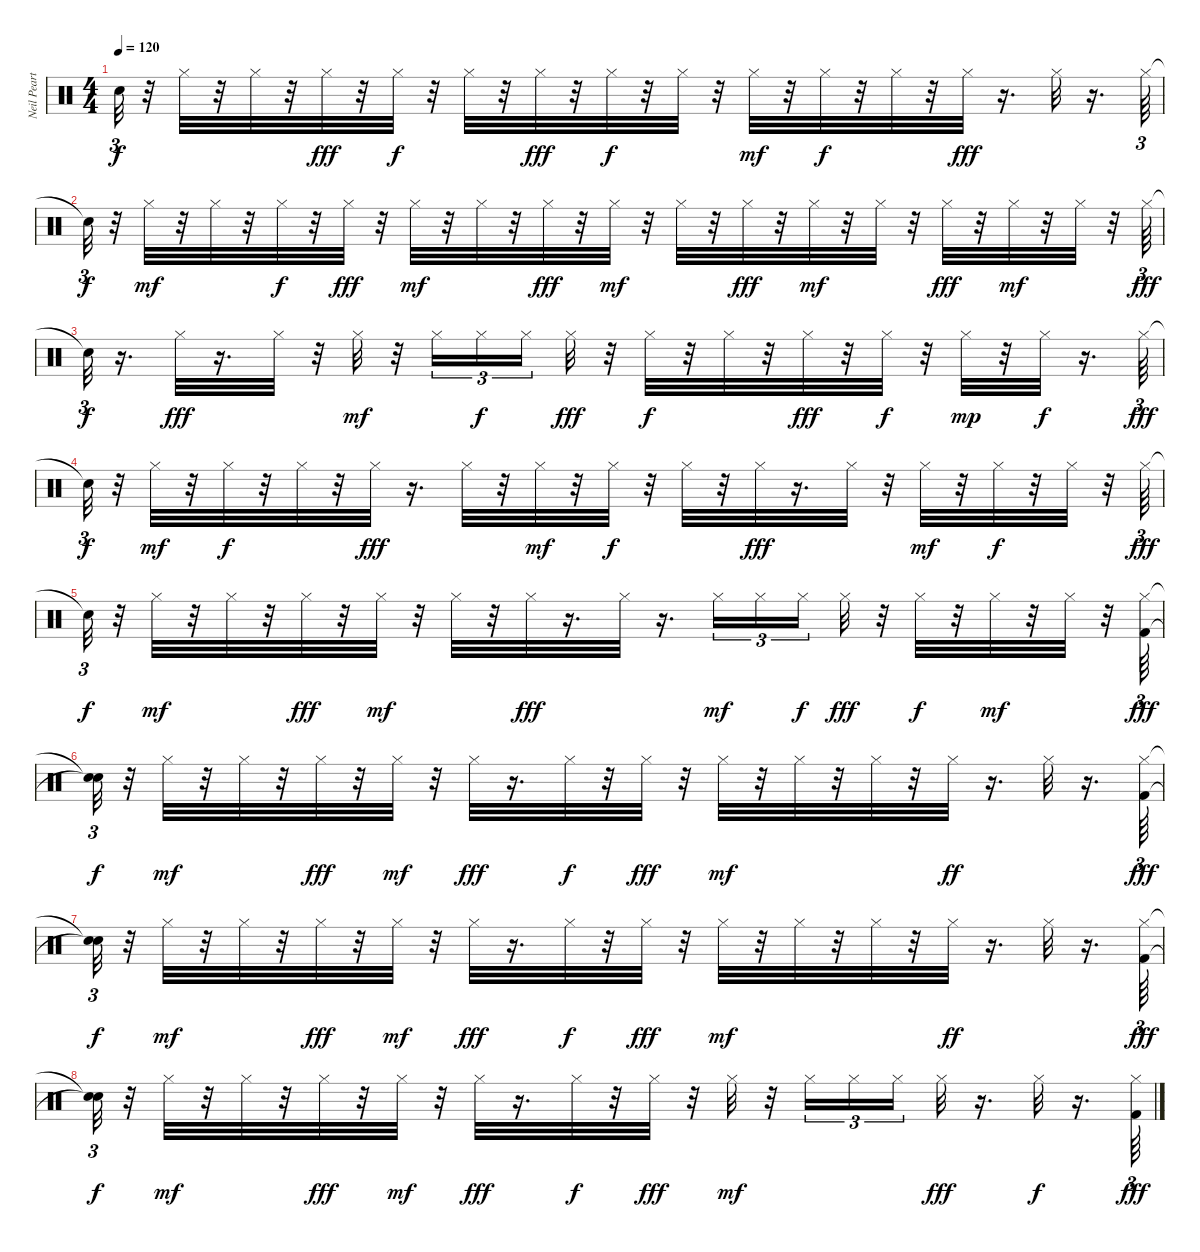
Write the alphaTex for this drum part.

\track ("Neil Peart" "Neil Peart") {instrument percussion}
\staff {score}
\articulation defaults
\ts (4 4)
\tempo 120
\clef neutral
\ks c "Snare (hit)"{t}.32{tu (3 2) dy f}
r.32 "Hi-Hat (closed)".32 r.32 "Hi-Hat (closed)".32 r.32 "Hi-Hat (closed)".32{dy fff} r.32 "Hi-Hat (closed)".32{dy f} r.32 "Hi-Hat (closed)".32 r.32 "Hi-Hat (closed)".32{dy fff} r.32 "Hi-Hat (closed)".32{dy f} r.32 "Hi-Hat (closed)".32 r.32 "Hi-Hat (closed)".32{dy mf} r.32 "Hi-Hat (closed)".32{dy f} r.32 "Hi-Hat (closed)".32 r.32 "Hi-Hat (closed)".32{dy fff} r.16{d} "Hi-Hat (closed)".32 r.16{d} "Hi-Hat (closed)".64{tu (3 2)} |
"Snare (hit)"{t}.32{tu (3 2) dy f} r.32 "Hi-Hat (closed)".32{dy mf} r.32 "Hi-Hat (closed)".32 r.32 "Hi-Hat (closed)".32{dy f} r.32 "Hi-Hat (closed)".32{dy fff} r.32 "Hi-Hat (closed)".32{dy mf} r.32 "Hi-Hat (closed)".32 r.32 "Hi-Hat (closed)".32{dy fff} r.32 "Hi-Hat (closed)".32{dy mf} r.32 "Hi-Hat (closed)".32 r.32 "Hi-Hat (closed)".32{dy fff} r.32 "Hi-Hat (closed)".32{dy mf} r.32 "Hi-Hat (closed)".32 r.32 "Hi-Hat (closed)".32{dy fff} r.32 "Hi-Hat (closed)".32{dy mf} r.32 "Hi-Hat (closed)".32 r.32 "Hi-Hat (closed)".64{tu (3 2) dy fff} |
"Snare (hit)"{t}.32{tu (3 2) dy f} r.16{d} "Hi-Hat (closed)".32{dy fff} r.16{d} "Hi-Hat (closed)".32 r.32 "Hi-Hat (closed)".32{dy mf} r.32 "Hi-Hat (closed)".16{tu (3 2)} "Hi-Hat (closed)".16{tu (3 2) dy f} "Hi-Hat (closed)".16{tu (3 2) beam splitsecondary} "Hi-Hat (closed)".32{dy fff} r.32 "Hi-Hat (closed)".32{dy f} r.32 "Hi-Hat (closed)".32 r.32 "Hi-Hat (closed)".32{dy fff} r.32 "Hi-Hat (closed)".32{dy f} r.32 "Hi-Hat (closed)".32{dy mp} r.32 "Hi-Hat (closed)".32{dy f} r.16{d} "Hi-Hat (closed)".64{tu (3 2) dy fff} |
"Snare (hit)"{t}.32{tu (3 2) dy f} r.32 "Hi-Hat (closed)".32{dy mf} r.32 "Hi-Hat (closed)".32{dy f} r.32 "Hi-Hat (closed)".32 r.32 "Hi-Hat (closed)".32{dy fff} r.16{d} "Hi-Hat (closed)".32 r.32 "Hi-Hat (closed)".32{dy mf} r.32 "Hi-Hat (closed)".32{dy f} r.32 "Hi-Hat (closed)".32 r.32 "Hi-Hat (closed)".32{dy fff} r.16{d} "Hi-Hat (closed)".32 r.32 "Hi-Hat (closed)".32{dy mf} r.32 "Hi-Hat (closed)".32{dy f} r.32 "Hi-Hat (closed)".32 r.32 "Hi-Hat (closed)".64{tu (3 2) dy fff} |
"Snare (hit)"{t}.32{tu (3 2) dy f} r.32 "Hi-Hat (closed)".32{dy mf} r.32 "Hi-Hat (closed)".32 r.32 "Hi-Hat (closed)".32{dy fff} r.32 "Hi-Hat (closed)".32{dy mf} r.32 "Hi-Hat (closed)".32 r.32 "Hi-Hat (closed)".32{dy fff} r.16{d} "Hi-Hat (closed)".32 r.16{d} "Hi-Hat (closed)".16{tu (3 2) dy mf} "Hi-Hat (closed)".16{tu (3 2)} "Hi-Hat (closed)".16{tu (3 2) dy f beam splitsecondary} "Hi-Hat (closed)".32{dy fff} r.32 "Hi-Hat (closed)".32{dy f} r.32 "Hi-Hat (closed)".32{dy mf} r.32 "Hi-Hat (closed)".32 r.32 ("Hi-Hat (closed)" "Kick (hit) 2").64{tu (3 2) dy fff} |
("Snare (hit)"{t} "Snare (hit)"{t}).32{tu (3 2) dy f} r.32 "Hi-Hat (closed)".32{dy mf} r.32 "Hi-Hat (closed)".32 r.32 "Hi-Hat (closed)".32{dy fff} r.32 "Hi-Hat (closed)".32{dy mf} r.32 "Hi-Hat (closed)".32{dy fff} r.16{d} "Hi-Hat (closed)".32{dy f} r.32 "Hi-Hat (closed)".32{dy fff} r.32 "Hi-Hat (closed)".32{dy mf} r.32 "Hi-Hat (closed)".32 r.32 "Hi-Hat (closed)".32 r.32 "Hi-Hat (closed)".32{dy ff} r.16{d} "Hi-Hat (closed)".32 r.16{d} ("Hi-Hat (closed)" "Kick (hit) 2").64{tu (3 2) dy fff} |
("Snare (hit)"{t} "Snare (hit)"{t}).32{tu (3 2) dy f} r.32 "Hi-Hat (closed)".32{dy mf} r.32 "Hi-Hat (closed)".32 r.32 "Hi-Hat (closed)".32{dy fff} r.32 "Hi-Hat (closed)".32{dy mf} r.32 "Hi-Hat (closed)".32{dy fff} r.16{d} "Hi-Hat (closed)".32{dy f} r.32 "Hi-Hat (closed)".32{dy fff} r.32 "Hi-Hat (closed)".32{dy mf} r.32 "Hi-Hat (closed)".32 r.32 "Hi-Hat (closed)".32 r.32 "Hi-Hat (closed)".32{dy ff} r.16{d} "Hi-Hat (closed)".32 r.16{d} ("Hi-Hat (closed)" "Kick (hit) 2").64{tu (3 2) dy fff} |
("Snare (hit)"{t} "Snare (hit)"{t}).32{tu (3 2) dy f} r.32 "Hi-Hat (closed)".32{dy mf} r.32 "Hi-Hat (closed)".32 r.32 "Hi-Hat (closed)".32{dy fff} r.32 "Hi-Hat (closed)".32{dy mf} r.32 "Hi-Hat (closed)".32{dy fff} r.16{d} "Hi-Hat (closed)".32{dy f} r.32 "Hi-Hat (closed)".32{dy fff} r.32 "Hi-Hat (closed)".32{dy mf} r.32 "Hi-Hat (closed)".16{tu (3 2)} "Hi-Hat (closed)".16{tu (3 2)} "Hi-Hat (closed)".16{tu (3 2) beam splitsecondary} "Hi-Hat (closed)".32{dy fff} r.16{d} "Hi-Hat (closed)".32{dy f} r.16{d} ("Hi-Hat (closed)" "Kick (hit) 2").64{tu (3 2) dy fff}
